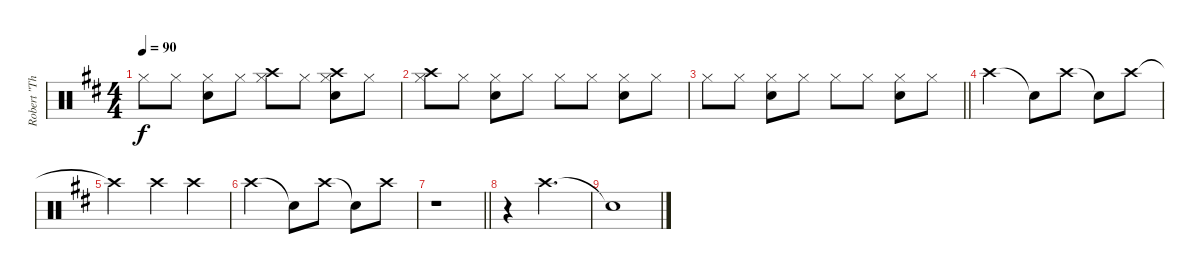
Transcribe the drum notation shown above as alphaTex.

\track ("Robert \"The Visual Timekeeper\" Sweet [Dr" "Robert \"Th") {instrument percussion}
\staff {score}
\articulation defaults
\ts (4 4)
\tempo 90
\clef neutral
\ks d "Hi-Hat (closed)".8{dy f} "Hi-Hat (closed)".8
("Hi-Hat (closed)" "Snare (hit) 2").8 "Hi-Hat (closed)".8 ("Hi-Hat (closed)" "Crash high (hit)").8 "Hi-Hat (closed)".8 ("Hi-Hat (closed)" "Snare (hit) 2" "Crash high (hit)").8 "Hi-Hat (closed)".8 |
("Hi-Hat (closed)" "Crash high (hit)").8 "Hi-Hat (closed)".8 ("Hi-Hat (closed)" "Snare (hit) 2").8 "Hi-Hat (closed)".8 "Hi-Hat (closed)".8 "Hi-Hat (closed)".8 ("Hi-Hat (closed)" "Snare (hit) 2").8 "Hi-Hat (closed)".8 |
\barLineRight lightlight "Hi-Hat (closed)".8 "Hi-Hat (closed)".8
("Hi-Hat (closed)" "Snare (hit) 2").8 "Hi-Hat (closed)".8 "Hi-Hat (closed)".8 "Hi-Hat (closed)".8 ("Hi-Hat (closed)" "Snare (hit) 2").8 "Hi-Hat (closed)".8 |
"Crash high (hit)".2 "Snare (hit)"{t}.8 "Crash high (hit)".8 "Snare (hit)"{t}.8 "Crash high (hit)".8 |
"Crash high (hit)"{t}.2 "Crash high (hit)".4 "Crash high (hit)".4 |
"Crash high (hit)".2 "Snare (hit)"{t}.8 "Crash high (hit)".8 "Snare (hit)"{t}.8 "Crash high (hit)".8 |
\barLineRight lightlight
r.1 |
r.4 "Crash high (hit)".2{d} |
"Snare (hit)"{t}.1
